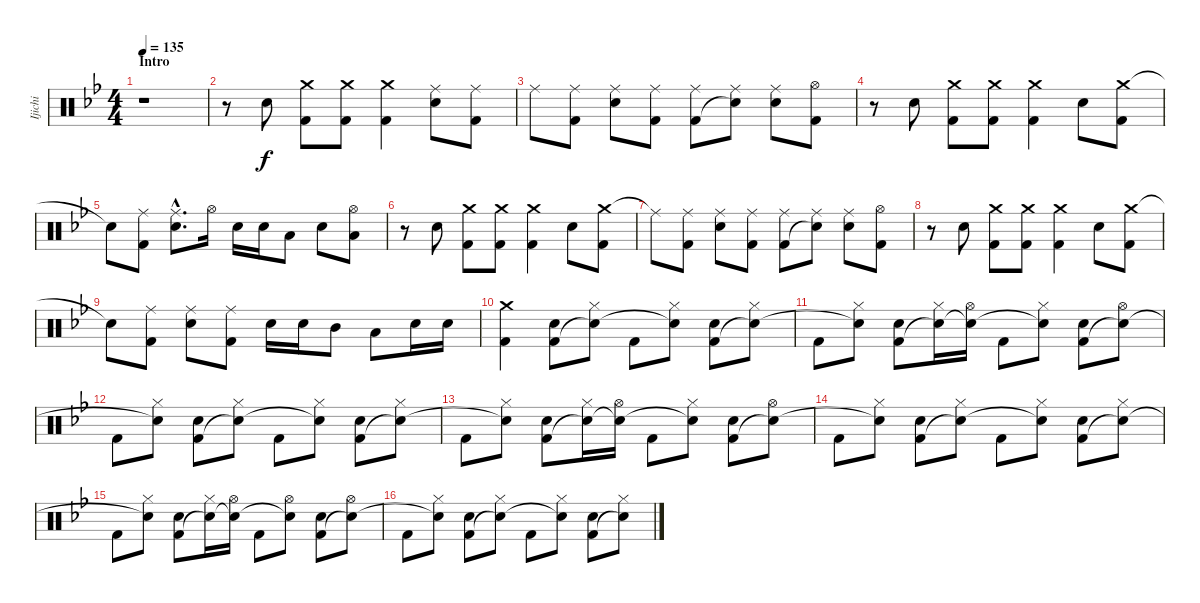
\track ("Ijichi" "Ijichi") {instrument percussion}
\staff {score}
\articulation defaults
\ts (4 4)
\section ("" "Intro")
\tempo 135
\clef neutral
\ks bb
r.1{dy f} |
r.8 "Electric Snare (hit)".8 ("Crash medium (hit)" "Kick (hit) 2").8 ("Crash medium (hit)" "Kick (hit) 2").8 ("Crash medium (hit)" "Kick (hit) 2").4 ("Ride (middle)" "Electric Snare (hit)").8 ("Ride (middle)" "Kick (hit) 2").8 |
"Ride (middle)".8 ("Ride (middle)" "Kick (hit) 2").8 ("Ride (middle)" "Electric Snare (hit)").8 ("Ride (middle)" "Kick (hit) 2").8 ("Ride (middle)" "Kick (hit) 2").8 ("Ride (middle)" "Snare (hit)"{t}).8 ("Ride (middle)" "Electric Snare (hit)").8 ("Hi-Hat (open)" "Kick (hit) 2").8 |
r.8 "Electric Snare (hit)".8 ("Crash medium (hit)" "Kick (hit) 2").8 ("Crash medium (hit)" "Kick (hit) 2").8 ("Crash medium (hit)" "Kick (hit) 2").4 "Electric Snare (hit)".8 ("Crash medium (hit)" "Kick (hit) 2").8 |
"Snare (hit)"{t}.8 ("Ride (middle)" "Kick (hit) 2").8 ("Ride (middle)"{hac} "Electric Snare (hit)"{hac}).8{d} "Hi-Hat (open)".16 "Electric Snare (hit)".16 "Electric Snare (hit)".16 "Low Floor Tom (hit)".8 "Electric Snare (hit)".8 ("Hi-Hat (open)" "Low Floor Tom (hit)").8 |
r.8 "Electric Snare (hit)".8 ("Crash medium (hit)" "Kick (hit) 2").8 ("Crash medium (hit)" "Kick (hit) 2").8 ("Crash medium (hit)" "Kick (hit) 2").4 "Electric Snare (hit)".8 ("Crash medium (hit)" "Kick (hit) 2").8 |
"Ride (middle)"{t}.8 ("Ride (middle)" "Kick (hit) 2").8 ("Ride (middle)" "Electric Snare (hit)").8 ("Ride (middle)" "Kick (hit) 2").8 ("Ride (middle)" "Kick (hit) 2").8 ("Ride (middle)" "Snare (hit)"{t}).8 ("Ride (middle)" "Electric Snare (hit)").8 ("Hi-Hat (open)" "Kick (hit) 2").8 |
r.8 "Electric Snare (hit)".8 ("Crash medium (hit)" "Kick (hit) 2").8 ("Crash medium (hit)" "Kick (hit) 2").8 ("Crash medium (hit)" "Kick (hit) 2").4 "Electric Snare (hit)".8 ("Crash medium (hit)" "Kick (hit) 2").8 |
"Snare (hit)"{t}.8 ("Ride (middle)" "Kick (hit) 2").8 ("Ride (middle)" "Electric Snare (hit)").8 ("Ride (middle)" "Kick (hit) 2").8 "Electric Snare (hit)".16 "Electric Snare (hit)".16 "Mid Tom (hit)".8 "Low Floor Tom (hit)".8 "Electric Snare (hit)".16 "Electric Snare (hit)".16 |
("Crash medium (hit)" "Kick (hit) 2").4 ("Electric Snare (hit)" "Kick (hit) 2").8 ("Hi-Hat (closed)" "Snare (hit)"{t}).8 "Kick (hit) 2".8 ("Hi-Hat (closed)" "Snare (hit)"{t}).8 ("Electric Snare (hit)" "Kick (hit) 2").8 ("Hi-Hat (closed)" "Snare (hit)"{t}).8 |
"Kick (hit) 2".8 ("Hi-Hat (closed)" "Snare (hit)"{t}).8 ("Electric Snare (hit)" "Kick (hit) 2").8 ("Hi-Hat (closed)" "Snare (hit)"{t}).16 ("Hi-Hat (open)" "Snare (hit)"{t}).16 "Kick (hit) 2".8 ("Hi-Hat (closed)" "Snare (hit)"{t}).8 ("Electric Snare (hit)" "Kick (hit) 2").8 ("Hi-Hat (open)" "Snare (hit)"{t}).8 |
"Kick (hit) 2".8 ("Hi-Hat (closed)" "Snare (hit)"{t}).8 ("Electric Snare (hit)" "Kick (hit) 2").8 ("Hi-Hat (closed)" "Snare (hit)"{t}).8 "Kick (hit) 2".8 ("Hi-Hat (closed)" "Snare (hit)"{t}).8 ("Electric Snare (hit)" "Kick (hit) 2").8 ("Hi-Hat (closed)" "Snare (hit)"{t}).8 |
"Kick (hit) 2".8 ("Hi-Hat (closed)" "Snare (hit)"{t}).8 ("Electric Snare (hit)" "Kick (hit) 2").8 ("Hi-Hat (closed)" "Snare (hit)"{t}).16 ("Hi-Hat (open)" "Snare (hit)"{t}).16 "Kick (hit) 2".8 ("Hi-Hat (closed)" "Snare (hit)"{t}).8 ("Electric Snare (hit)" "Kick (hit) 2").8 ("Hi-Hat (open)" "Snare (hit)"{t}).8 |
"Kick (hit) 2".8 ("Hi-Hat (closed)" "Snare (hit)"{t}).8 ("Electric Snare (hit)" "Kick (hit) 2").8 ("Hi-Hat (closed)" "Snare (hit)"{t}).8 "Kick (hit) 2".8 ("Hi-Hat (closed)" "Snare (hit)"{t}).8 ("Electric Snare (hit)" "Kick (hit) 2").8 ("Hi-Hat (closed)" "Snare (hit)"{t}).8 |
"Kick (hit) 2".8 ("Hi-Hat (closed)" "Snare (hit)"{t}).8 ("Electric Snare (hit)" "Kick (hit) 2").8 ("Hi-Hat (closed)" "Snare (hit)"{t}).16 ("Hi-Hat (open)" "Snare (hit)"{t}).16 "Kick (hit) 2".8 ("Hi-Hat (open)" "Snare (hit)"{t}).8 ("Electric Snare (hit)" "Kick (hit) 2").8 ("Hi-Hat (open)" "Snare (hit)"{t}).8 |
"Kick (hit) 2".8 ("Hi-Hat (closed)" "Snare (hit)"{t}).8 ("Electric Snare (hit)" "Kick (hit) 2").8 ("Hi-Hat (closed)" "Snare (hit)"{t}).8 "Kick (hit) 2".8 ("Hi-Hat (closed)" "Snare (hit)"{t}).8 ("Electric Snare (hit)" "Kick (hit) 2").8 ("Hi-Hat (closed)" "Snare (hit)"{t}).8
